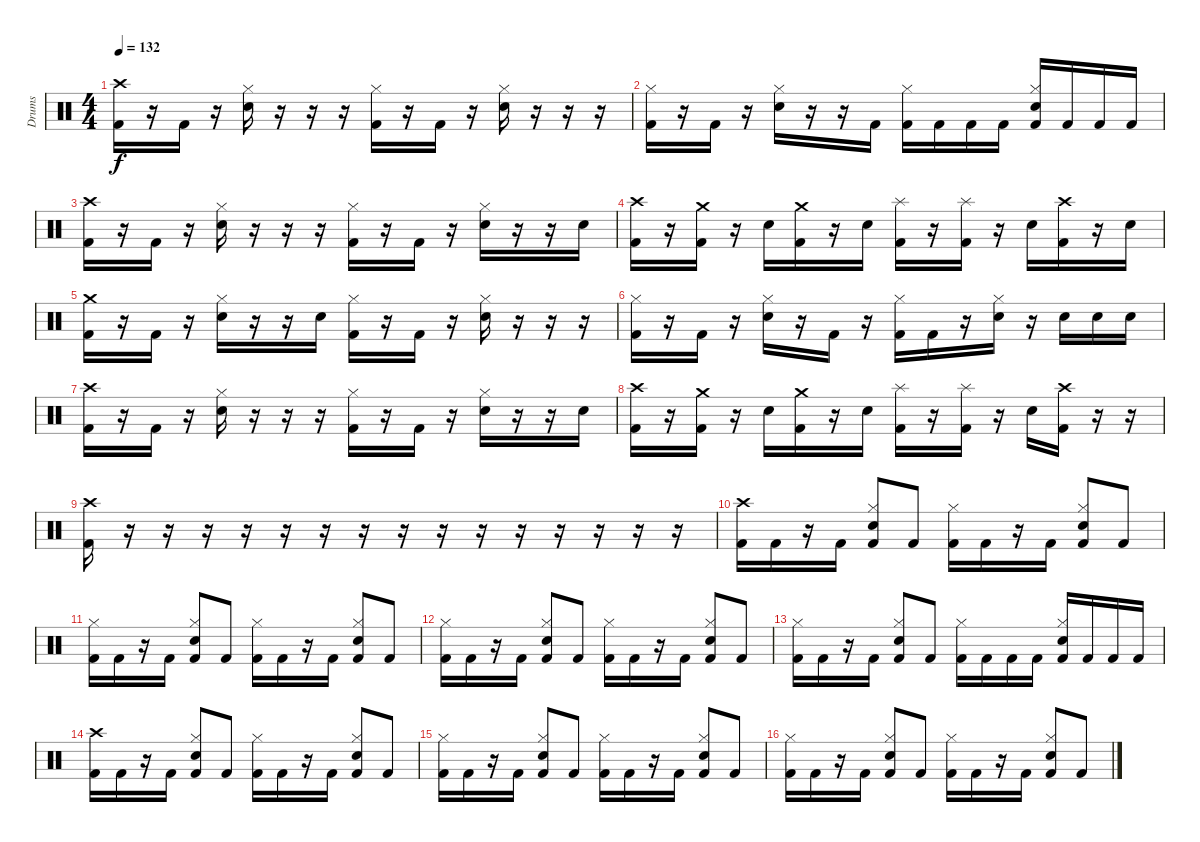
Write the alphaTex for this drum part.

\track ("Drums" "Drums") {instrument percussion}
\staff {score}
\articulation defaults
\ts (4 4)
\tempo 132
\clef neutral
\ks c
("Crash high (hit)" "Kick (hit) 2").16{dy f} r.16 "Kick (hit) 2".16 r.16 ("Hi-Hat (closed)" "Electric Snare (hit)").16 r.16 r.16 r.16 ("Hi-Hat (closed)" "Kick (hit) 2").16 r.16 "Kick (hit) 2".16 r.16 ("Hi-Hat (closed)" "Electric Snare (hit)").16 r.16 r.16 r.16 |
("Hi-Hat (closed)" "Kick (hit) 2").16 r.16 "Kick (hit) 2".16 r.16 ("Hi-Hat (closed)" "Electric Snare (hit)").16 r.16 r.16 "Kick (hit) 2".16 ("Hi-Hat (closed)" "Kick (hit) 2").16 "Kick (hit) 2".16 "Kick (hit) 2".16 "Kick (hit) 2".16 ("Hi-Hat (closed)" "Electric Snare (hit)" "Kick (hit) 2").16 "Kick (hit) 2".16 "Kick (hit) 2".16 "Kick (hit) 2".16 |
("Crash high (hit)" "Kick (hit) 2").16 r.16 "Kick (hit) 2".16 r.16 ("Hi-Hat (closed)" "Electric Snare (hit)").16 r.16 r.16 r.16 ("Hi-Hat (closed)" "Kick (hit) 2").16 r.16 "Kick (hit) 2".16 r.16 ("Hi-Hat (closed)" "Electric Snare (hit)").16 r.16 r.16 "Electric Snare (hit)".16 |
("Crash high (hit)" "Kick (hit) 2").16 r.16 ("Crash medium (hit)" "Kick (hit) 2").16 r.16 "Electric Snare (hit)".16 ("Crash medium (hit)" "Kick (hit) 2").16 r.16 "Electric Snare (hit)".16 ("Splash (hit)" "Kick (hit) 2").16 r.16 ("Splash (hit)" "Kick (hit) 2").16 r.16 "Electric Snare (hit)".16 ("Crash high (hit)" "Kick (hit) 2").16 r.16 "Electric Snare (hit)".16 |
("Crash medium (hit)" "Kick (hit) 2").16 r.16 "Kick (hit) 2".16 r.16 ("Hi-Hat (closed)" "Electric Snare (hit)").16 r.16 r.16 "Electric Snare (hit)".16 ("Hi-Hat (closed)" "Kick (hit) 2").16 r.16 "Kick (hit) 2".16 r.16 ("Hi-Hat (closed)" "Electric Snare (hit)").16 r.16 r.16 r.16 |
("Hi-Hat (closed)" "Kick (hit) 2").16 r.16 "Kick (hit) 2".16 r.16 ("Hi-Hat (closed)" "Electric Snare (hit)").16 r.16 "Kick (hit) 2".16 r.16 ("Hi-Hat (closed)" "Kick (hit) 2").16 "Kick (hit) 2".16 r.16 ("Hi-Hat (closed)" "Electric Snare (hit)").16 r.16 "Electric Snare (hit)".16 "Electric Snare (hit)".16 "Electric Snare (hit)".16 |
("Crash high (hit)" "Kick (hit) 2").16 r.16 "Kick (hit) 2".16 r.16 ("Hi-Hat (closed)" "Electric Snare (hit)").16 r.16 r.16 r.16 ("Hi-Hat (closed)" "Kick (hit) 2").16 r.16 "Kick (hit) 2".16 r.16 ("Hi-Hat (closed)" "Electric Snare (hit)").16 r.16 r.16 "Electric Snare (hit)".16 |
("Crash high (hit)" "Kick (hit) 2").16 r.16 ("Crash medium (hit)" "Kick (hit) 2").16 r.16 "Electric Snare (hit)".16 ("Crash medium (hit)" "Kick (hit) 2").16 r.16 "Electric Snare (hit)".16 ("Splash (hit)" "Kick (hit) 2").16 r.16 ("Splash (hit)" "Kick (hit) 2").16 r.16 "Electric Snare (hit)".16 ("Crash high (hit)" "Kick (hit) 2").16 r.16 r.16 |
("Crash high (hit)" "Kick (hit) 2").16 r.16 r.16 r.16 r.16 r.16 r.16 r.16 r.16 r.16 r.16 r.16 r.16 r.16 r.16 r.16 |
("Crash high (hit)" "Kick (hit) 2").16 "Kick (hit) 2".16 r.16 "Kick (hit) 2".16 ("Hi-Hat (closed)" "Electric Snare (hit)" "Kick (hit) 2").8 "Kick (hit) 2".8 ("Hi-Hat (closed)" "Kick (hit) 2").16 "Kick (hit) 2".16 r.16 "Kick (hit) 2".16 ("Hi-Hat (closed)" "Electric Snare (hit)" "Kick (hit) 2").8 "Kick (hit) 2".8 |
("Hi-Hat (closed)" "Kick (hit) 2").16 "Kick (hit) 2".16 r.16 "Kick (hit) 2".16 ("Hi-Hat (closed)" "Electric Snare (hit)" "Kick (hit) 2").8 "Kick (hit) 2".8 ("Hi-Hat (closed)" "Kick (hit) 2").16 "Kick (hit) 2".16 r.16 "Kick (hit) 2".16 ("Hi-Hat (closed)" "Electric Snare (hit)" "Kick (hit) 2").8 "Kick (hit) 2".8 |
("Hi-Hat (closed)" "Kick (hit) 2").16 "Kick (hit) 2".16 r.16 "Kick (hit) 2".16 ("Hi-Hat (closed)" "Electric Snare (hit)" "Kick (hit) 2").8 "Kick (hit) 2".8 ("Hi-Hat (closed)" "Kick (hit) 2").16 "Kick (hit) 2".16 r.16 "Kick (hit) 2".16 ("Hi-Hat (closed)" "Electric Snare (hit)" "Kick (hit) 2").8 "Kick (hit) 2".8 |
("Hi-Hat (closed)" "Kick (hit) 2").16 "Kick (hit) 2".16 r.16 "Kick (hit) 2".16 ("Hi-Hat (closed)" "Electric Snare (hit)" "Kick (hit) 2").8 "Kick (hit) 2".8 ("Hi-Hat (closed)" "Kick (hit) 2").16 "Kick (hit) 2".16 "Kick (hit) 2".16 "Kick (hit) 2".16 ("Hi-Hat (closed)" "Electric Snare (hit)" "Kick (hit) 2").16 "Kick (hit) 2".16 "Kick (hit) 2".16 "Kick (hit) 2".16 |
("Crash high (hit)" "Kick (hit) 2").16 "Kick (hit) 2".16 r.16 "Kick (hit) 2".16 ("Hi-Hat (closed)" "Electric Snare (hit)" "Kick (hit) 2").8 "Kick (hit) 2".8 ("Hi-Hat (closed)" "Kick (hit) 2").16 "Kick (hit) 2".16 r.16 "Kick (hit) 2".16 ("Hi-Hat (closed)" "Electric Snare (hit)" "Kick (hit) 2").8 "Kick (hit) 2".8 |
("Hi-Hat (closed)" "Kick (hit) 2").16 "Kick (hit) 2".16 r.16 "Kick (hit) 2".16 ("Hi-Hat (closed)" "Electric Snare (hit)" "Kick (hit) 2").8 "Kick (hit) 2".8 ("Hi-Hat (closed)" "Kick (hit) 2").16 "Kick (hit) 2".16 r.16 "Kick (hit) 2".16 ("Hi-Hat (closed)" "Electric Snare (hit)" "Kick (hit) 2").8 "Kick (hit) 2".8 |
("Hi-Hat (closed)" "Kick (hit) 2").16 "Kick (hit) 2".16 r.16 "Kick (hit) 2".16 ("Hi-Hat (closed)" "Electric Snare (hit)" "Kick (hit) 2").8 "Kick (hit) 2".8 ("Hi-Hat (closed)" "Kick (hit) 2").16 "Kick (hit) 2".16 r.16 "Kick (hit) 2".16 ("Hi-Hat (closed)" "Electric Snare (hit)" "Kick (hit) 2").8 "Kick (hit) 2".8
